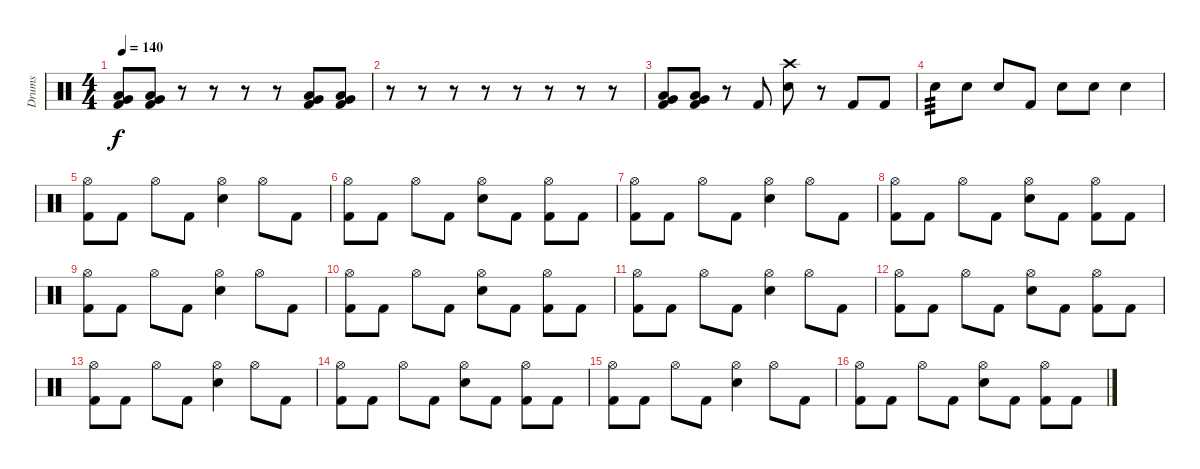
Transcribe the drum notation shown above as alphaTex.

\track ("Drums" "Drums") {instrument percussion}
\staff {score}
\articulation defaults
\ts (4 4)
\tempo 140
\clef neutral
\ks c
("Low Floor Tom (hit)" "Very Low Tom (hit)" "Kick (hit) 2").8{dy f} ("Low Floor Tom (hit)" "Very Low Tom (hit)" "Kick (hit) 2").8 r.8 r.8 r.8 r.8 ("Low Floor Tom (hit)" "Very Low Tom (hit)" "Kick (hit) 2").8 ("Low Floor Tom (hit)" "Very Low Tom (hit)" "Kick (hit) 2").8 |
r.8 r.8 r.8 r.8 r.8 r.8 r.8 r.8 |
("Low Floor Tom (hit)" "Very Low Tom (hit)" "Kick (hit) 2").8 ("Low Floor Tom (hit)" "Very Low Tom (hit)" "Kick (hit) 2").8 r.8 "Kick (hit) 2".8 ("Crash high (hit)" "Snare (hit) 2").8 r.8 "Kick (hit) 2".8 "Kick (hit) 2".8 |
"Snare (hit) 2".8{tp 3} "Snare (hit) 2".8 "Snare (hit) 2".8 "Kick (hit) 2".8 "Snare (hit) 2".8 "Snare (hit) 2".8 "Snare (hit) 2".4 |
("Hi-Hat (open)" "Kick (hit) 2").8 "Kick (hit) 2".8 "Hi-Hat (open)".8 "Kick (hit) 2".8 ("Hi-Hat (open)" "Snare (hit) 2").4 "Hi-Hat (open)".8 "Kick (hit) 2".8 |
("Hi-Hat (open)" "Kick (hit) 2").8 "Kick (hit) 2".8 "Hi-Hat (open)".8 "Kick (hit) 2".8 ("Hi-Hat (open)" "Snare (hit) 2").8 "Kick (hit) 2".8 ("Hi-Hat (open)" "Kick (hit) 2").8 "Kick (hit) 2".8 |
("Hi-Hat (open)" "Kick (hit) 2").8 "Kick (hit) 2".8 "Hi-Hat (open)".8 "Kick (hit) 2".8 ("Hi-Hat (open)" "Snare (hit) 2").4 "Hi-Hat (open)".8 "Kick (hit) 2".8 |
("Hi-Hat (open)" "Kick (hit) 2").8 "Kick (hit) 2".8 "Hi-Hat (open)".8 "Kick (hit) 2".8 ("Hi-Hat (open)" "Snare (hit) 2").8 "Kick (hit) 2".8 ("Hi-Hat (open)" "Kick (hit) 2").8 "Kick (hit) 2".8 |
("Hi-Hat (open)" "Kick (hit) 2").8 "Kick (hit) 2".8 "Hi-Hat (open)".8 "Kick (hit) 2".8 ("Hi-Hat (open)" "Snare (hit) 2").4 "Hi-Hat (open)".8 "Kick (hit) 2".8 |
("Hi-Hat (open)" "Kick (hit) 2").8 "Kick (hit) 2".8 "Hi-Hat (open)".8 "Kick (hit) 2".8 ("Hi-Hat (open)" "Snare (hit) 2").8 "Kick (hit) 2".8 ("Hi-Hat (open)" "Kick (hit) 2").8 "Kick (hit) 2".8 |
("Hi-Hat (open)" "Kick (hit) 2").8 "Kick (hit) 2".8 "Hi-Hat (open)".8 "Kick (hit) 2".8 ("Hi-Hat (open)" "Snare (hit) 2").4 "Hi-Hat (open)".8 "Kick (hit) 2".8 |
("Hi-Hat (open)" "Kick (hit) 2").8 "Kick (hit) 2".8 "Hi-Hat (open)".8 "Kick (hit) 2".8 ("Hi-Hat (open)" "Snare (hit) 2").8 "Kick (hit) 2".8 ("Hi-Hat (open)" "Kick (hit) 2").8 "Kick (hit) 2".8 |
("Hi-Hat (open)" "Kick (hit) 2").8 "Kick (hit) 2".8 "Hi-Hat (open)".8 "Kick (hit) 2".8 ("Hi-Hat (open)" "Snare (hit) 2").4 "Hi-Hat (open)".8 "Kick (hit) 2".8 |
("Hi-Hat (open)" "Kick (hit) 2").8 "Kick (hit) 2".8 "Hi-Hat (open)".8 "Kick (hit) 2".8 ("Hi-Hat (open)" "Snare (hit) 2").8 "Kick (hit) 2".8 ("Hi-Hat (open)" "Kick (hit) 2").8 "Kick (hit) 2".8 |
("Hi-Hat (open)" "Kick (hit) 2").8 "Kick (hit) 2".8 "Hi-Hat (open)".8 "Kick (hit) 2".8 ("Hi-Hat (open)" "Snare (hit) 2").4 "Hi-Hat (open)".8 "Kick (hit) 2".8 |
("Hi-Hat (open)" "Kick (hit) 2").8 "Kick (hit) 2".8 "Hi-Hat (open)".8 "Kick (hit) 2".8 ("Hi-Hat (open)" "Snare (hit) 2").8 "Kick (hit) 2".8 ("Hi-Hat (open)" "Kick (hit) 2").8 "Kick (hit) 2".8
